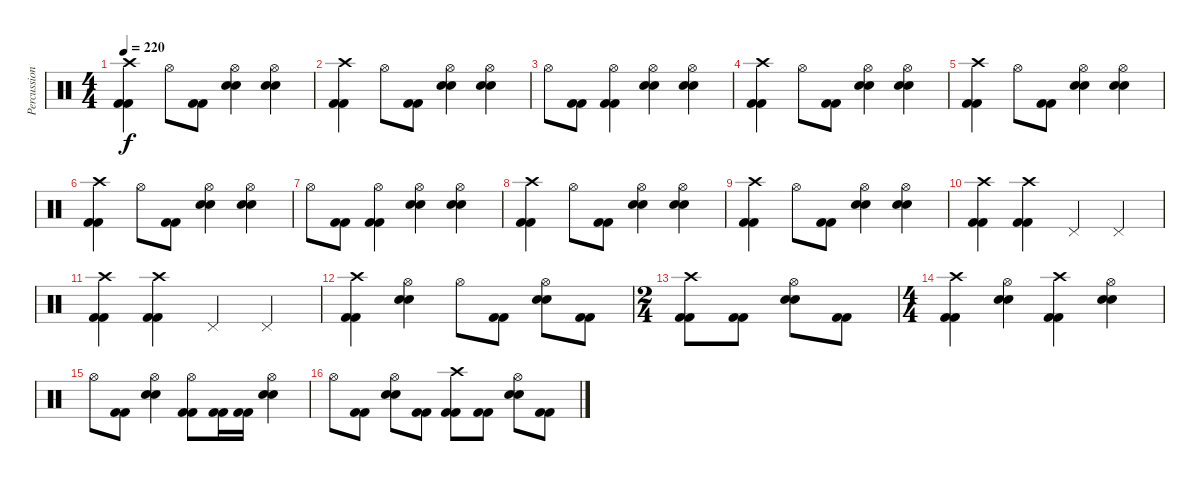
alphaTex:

\track ("Percussion" "Percussion") {instrument percussion}
\staff {score}
\articulation defaults
\ts (4 4)
\tempo 220
\clef neutral
\ks c
("Crash high (hit)" "Kick (hit) 2" "Kick (hit) 2").4{dy f} "Hi-Hat (open)".8 ("Kick (hit) 2" "Kick (hit) 2").8 ("Hi-Hat (open)" "Electric Snare (hit)" "Electric Snare (hit)").4 ("Hi-Hat (open)" "Electric Snare (hit)" "Electric Snare (hit)").4 |
("Crash high (hit)" "Kick (hit) 2" "Kick (hit) 2").4 "Hi-Hat (open)".8 ("Kick (hit) 2" "Kick (hit) 2").8 ("Hi-Hat (open)" "Electric Snare (hit)" "Electric Snare (hit)").4 ("Hi-Hat (open)" "Electric Snare (hit)" "Electric Snare (hit)").4 |
"Hi-Hat (open)".8 ("Kick (hit) 2" "Kick (hit) 2").8 ("Hi-Hat (open)" "Kick (hit) 2" "Kick (hit) 2").4 ("Hi-Hat (open)" "Electric Snare (hit)" "Electric Snare (hit)").4 ("Hi-Hat (open)" "Electric Snare (hit)" "Electric Snare (hit)").4 |
("Crash high (hit)" "Kick (hit) 2" "Kick (hit) 2").4 "Hi-Hat (open)".8 ("Kick (hit) 2" "Kick (hit) 2").8 ("Hi-Hat (open)" "Electric Snare (hit)" "Electric Snare (hit)").4 ("Hi-Hat (open)" "Electric Snare (hit)" "Electric Snare (hit)").4 |
("Crash high (hit)" "Kick (hit) 2" "Kick (hit) 2").4 "Hi-Hat (open)".8 ("Kick (hit) 2" "Kick (hit) 2").8 ("Hi-Hat (open)" "Electric Snare (hit)" "Electric Snare (hit)").4 ("Hi-Hat (open)" "Electric Snare (hit)" "Electric Snare (hit)").4 |
("Crash high (hit)" "Kick (hit) 2" "Kick (hit) 2").4 "Hi-Hat (open)".8 ("Kick (hit) 2" "Kick (hit) 2").8 ("Hi-Hat (open)" "Electric Snare (hit)" "Electric Snare (hit)").4 ("Hi-Hat (open)" "Electric Snare (hit)" "Electric Snare (hit)").4 |
"Hi-Hat (open)".8 ("Kick (hit) 2" "Kick (hit) 2").8 ("Hi-Hat (open)" "Kick (hit) 2" "Kick (hit) 2").4 ("Hi-Hat (open)" "Electric Snare (hit)" "Electric Snare (hit)").4 ("Hi-Hat (open)" "Electric Snare (hit)" "Electric Snare (hit)").4 |
("Crash high (hit)" "Kick (hit) 2" "Kick (hit) 2").4 "Hi-Hat (open)".8 ("Kick (hit) 2" "Kick (hit) 2").8 ("Hi-Hat (open)" "Electric Snare (hit)" "Electric Snare (hit)").4 ("Hi-Hat (open)" "Electric Snare (hit)" "Electric Snare (hit)").4 |
("Crash high (hit)" "Kick (hit) 2" "Kick (hit) 2").4 "Hi-Hat (open)".8 ("Kick (hit) 2" "Kick (hit) 2").8 ("Hi-Hat (open)" "Electric Snare (hit)" "Electric Snare (hit)").4 ("Hi-Hat (open)" "Electric Snare (hit)" "Electric Snare (hit)").4 |
("Crash high (hit)" "Kick (hit) 2" "Kick (hit) 2").4 ("Crash high (hit)" "Kick (hit) 2" "Kick (hit) 2").4 "Pedal Hi-Hat (hit)".4 "Pedal Hi-Hat (hit)".4 |
("Crash high (hit)" "Kick (hit) 2" "Kick (hit) 2").4 ("Crash high (hit)" "Kick (hit) 2" "Kick (hit) 2").4 "Pedal Hi-Hat (hit)".4 "Pedal Hi-Hat (hit)".4 |
("Crash high (hit)" "Kick (hit) 2" "Kick (hit) 2").4 ("Hi-Hat (open)" "Electric Snare (hit)" "Electric Snare (hit)").4 "Hi-Hat (open)".8 ("Kick (hit) 2" "Kick (hit) 2").8 ("Hi-Hat (open)" "Electric Snare (hit)" "Electric Snare (hit)").8 ("Kick (hit) 2" "Kick (hit) 2").8 |
\ts (2 4)
("Crash high (hit)" "Kick (hit) 2" "Kick (hit) 2").8 ("Kick (hit) 2" "Kick (hit) 2").8 ("Hi-Hat (open)" "Electric Snare (hit)" "Electric Snare (hit)").8 ("Kick (hit) 2" "Kick (hit) 2").8 |
\ts (4 4)
("Crash high (hit)" "Kick (hit) 2" "Kick (hit) 2").4 ("Hi-Hat (open)" "Electric Snare (hit)" "Electric Snare (hit)").4 ("Crash high (hit)" "Kick (hit) 2" "Kick (hit) 2").4 ("Hi-Hat (open)" "Electric Snare (hit)" "Electric Snare (hit)").4 |
"Hi-Hat (open)".8 ("Kick (hit) 2" "Kick (hit) 2").8 ("Hi-Hat (open)" "Electric Snare (hit)" "Electric Snare (hit)").4 ("Hi-Hat (open)" "Kick (hit) 2" "Kick (hit) 2").8 ("Kick (hit) 2" "Kick (hit) 2").16 ("Kick (hit) 2" "Kick (hit) 2").16 ("Hi-Hat (open)" "Electric Snare (hit)" "Electric Snare (hit)").4 |
"Hi-Hat (open)".8 ("Kick (hit) 2" "Kick (hit) 2").8 ("Hi-Hat (open)" "Electric Snare (hit)" "Electric Snare (hit)").8 ("Kick (hit) 2" "Kick (hit) 2").8 ("Crash high (hit)" "Kick (hit) 2" "Kick (hit) 2").8 ("Kick (hit) 2" "Kick (hit) 2").8 ("Hi-Hat (open)" "Electric Snare (hit)" "Electric Snare (hit)").8 ("Kick (hit) 2" "Kick (hit) 2").8
